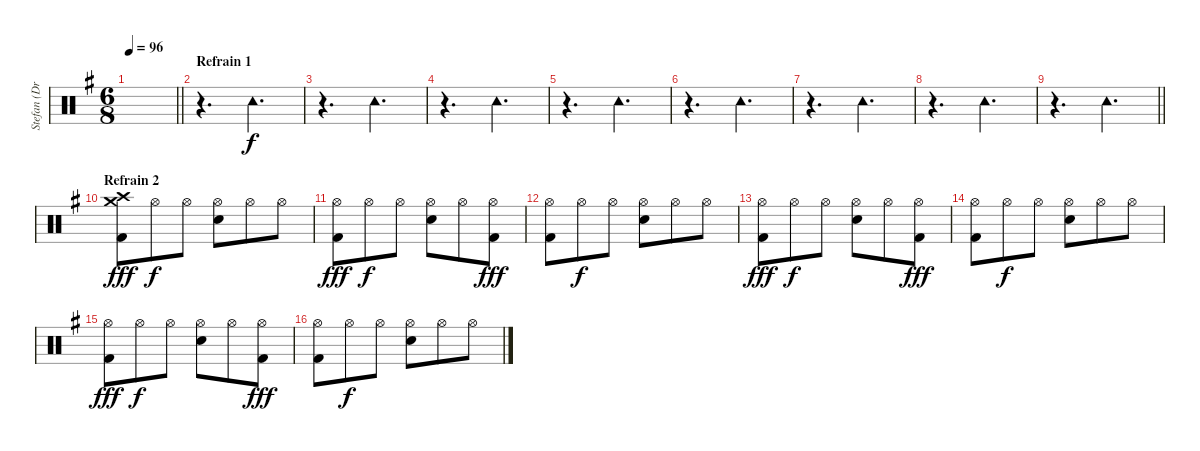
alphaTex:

\track ("Stefan (Drums)" "Stefan (Dr") {instrument percussion}
\staff {score}
\articulation defaults
\ts (6 8)
\tempo 96
\clef neutral
\barLineRight lightlight
\ks g
|
\section ("" "Refrain 1")
r.4{d} "Tambourine (hit)".4{d} |
r.4{d} "Tambourine (hit)".4{d} |
r.4{d} "Tambourine (hit)".4{d} |
r.4{d} "Tambourine (hit)".4{d} |
r.4{d} "Tambourine (hit)".4{d} |
r.4{d} "Tambourine (hit)".4{d} |
r.4{d} "Tambourine (hit)".4{d} |
\barLineRight lightlight
r.4{d} "Tambourine (hit)".4{d} |
\section ("" "Refrain 2")
("Crash high (hit)" "Crash medium (hit)" "Kick (hit) 2").8{dy fff} "Hi-Hat (open)".8{dy f} "Hi-Hat (open)".8 ("Hi-Hat (open)" "Snare (hit) 2").8 "Hi-Hat (open)".8 "Hi-Hat (open)".8 |
("Hi-Hat (open)" "Kick (hit) 2").8{dy fff} "Hi-Hat (open)".8{dy f} "Hi-Hat (open)".8 ("Hi-Hat (open)" "Snare (hit) 2").8 "Hi-Hat (open)".8 ("Hi-Hat (open)" "Kick (hit) 2").8{dy fff} |
("Hi-Hat (open)" "Kick (hit) 2").8 "Hi-Hat (open)".8{dy f} "Hi-Hat (open)".8 ("Hi-Hat (open)" "Snare (hit) 2").8 "Hi-Hat (open)".8 "Hi-Hat (open)".8 |
("Hi-Hat (open)" "Kick (hit) 2").8{dy fff} "Hi-Hat (open)".8{dy f} "Hi-Hat (open)".8 ("Hi-Hat (open)" "Snare (hit) 2").8 "Hi-Hat (open)".8 ("Hi-Hat (open)" "Kick (hit) 2").8{dy fff} |
("Hi-Hat (open)" "Kick (hit) 2").8 "Hi-Hat (open)".8{dy f} "Hi-Hat (open)".8 ("Hi-Hat (open)" "Snare (hit) 2").8 "Hi-Hat (open)".8 "Hi-Hat (open)".8 |
("Hi-Hat (open)" "Kick (hit) 2").8{dy fff} "Hi-Hat (open)".8{dy f} "Hi-Hat (open)".8 ("Hi-Hat (open)" "Snare (hit) 2").8 "Hi-Hat (open)".8 ("Hi-Hat (open)" "Kick (hit) 2").8{dy fff} |
("Hi-Hat (open)" "Kick (hit) 2").8 "Hi-Hat (open)".8{dy f} "Hi-Hat (open)".8 ("Hi-Hat (open)" "Snare (hit) 2").8 "Hi-Hat (open)".8 "Hi-Hat (open)".8
